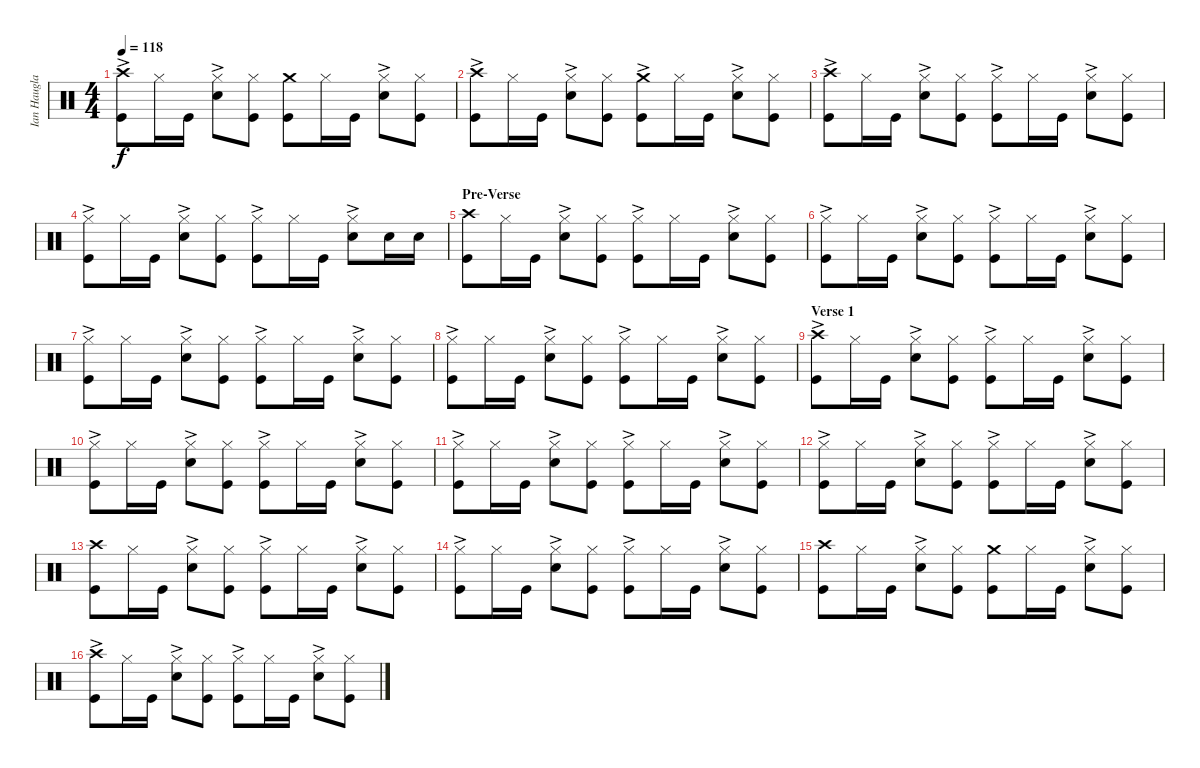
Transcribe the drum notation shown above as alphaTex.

\track ("Ian Haugland - Tama Imperialstar Kit - " "Ian Haugla") {instrument percussion}
\staff {score}
\articulation defaults
\ts (4 4)
\tempo 118
\clef neutral
\ks c
("Crash high (hit)"{ac} "Kick (hit)").8{dy f} "Hi-Hat (closed)".16 "Kick (hit)".16 ("Hi-Hat (closed)"{ac} "Snare (hit) 2").8 ("Hi-Hat (closed)" "Kick (hit)").8 ("Crash medium (hit)" "Kick (hit)").8 "Hi-Hat (closed)".16 "Kick (hit)".16 ("Hi-Hat (closed)"{ac} "Snare (hit) 2").8 ("Hi-Hat (closed)" "Kick (hit)").8 |
("Crash high (hit)"{ac} "Kick (hit)").8 "Hi-Hat (closed)".16 "Kick (hit)".16 ("Hi-Hat (closed)"{ac} "Snare (hit) 2").8 ("Hi-Hat (closed)" "Kick (hit)").8 ("Crash medium (hit)"{ac} "Kick (hit)").8 "Hi-Hat (closed)".16 "Kick (hit)".16 ("Hi-Hat (closed)"{ac} "Snare (hit) 2").8 ("Hi-Hat (closed)" "Kick (hit)").8 |
("Crash high (hit)"{ac} "Kick (hit)").8 "Hi-Hat (closed)".16 "Kick (hit)".16 ("Hi-Hat (closed)"{ac} "Snare (hit) 2").8 ("Hi-Hat (closed)" "Kick (hit)").8 ("Hi-Hat (closed)"{ac} "Kick (hit)").8 "Hi-Hat (closed)".16 "Kick (hit)".16 ("Hi-Hat (closed)"{ac} "Snare (hit) 2").8 ("Hi-Hat (closed)" "Kick (hit)").8 |
("Hi-Hat (closed)"{ac} "Kick (hit)").8 "Hi-Hat (closed)".16 "Kick (hit)".16 ("Hi-Hat (closed)"{ac} "Snare (hit) 2").8 ("Hi-Hat (closed)" "Kick (hit)").8 ("Hi-Hat (closed)"{ac} "Kick (hit)").8 "Hi-Hat (closed)".16 "Kick (hit)".16 ("Hi-Hat (closed)"{ac} "Snare (hit) 2").8 "Snare (hit) 2".16 "Snare (hit) 2".16 |
\section ("" "Pre-Verse")
("Crash high (hit)" "Kick (hit)").8 "Hi-Hat (closed)".16 "Kick (hit)".16 ("Hi-Hat (closed)"{ac} "Snare (hit) 2").8 ("Hi-Hat (closed)" "Kick (hit)").8 ("Hi-Hat (closed)"{ac} "Kick (hit)").8 "Hi-Hat (closed)".16 "Kick (hit)".16 ("Hi-Hat (closed)"{ac} "Snare (hit) 2").8 ("Hi-Hat (closed)" "Kick (hit)").8 |
("Hi-Hat (closed)"{ac} "Kick (hit)").8 "Hi-Hat (closed)".16 "Kick (hit)".16 ("Hi-Hat (closed)"{ac} "Snare (hit) 2").8 ("Hi-Hat (closed)" "Kick (hit)").8 ("Hi-Hat (closed)"{ac} "Kick (hit)").8 "Hi-Hat (closed)".16 "Kick (hit)".16 ("Hi-Hat (closed)"{ac} "Snare (hit) 2").8 ("Hi-Hat (closed)" "Kick (hit)").8 |
("Hi-Hat (closed)"{ac} "Kick (hit)").8 "Hi-Hat (closed)".16 "Kick (hit)".16 ("Hi-Hat (closed)"{ac} "Snare (hit) 2").8 ("Hi-Hat (closed)" "Kick (hit)").8 ("Hi-Hat (closed)"{ac} "Kick (hit)").8 "Hi-Hat (closed)".16 "Kick (hit)".16 ("Hi-Hat (closed)"{ac} "Snare (hit) 2").8 ("Hi-Hat (closed)" "Kick (hit)").8 |
("Hi-Hat (closed)"{ac} "Kick (hit)").8 "Hi-Hat (closed)".16 "Kick (hit)".16 ("Hi-Hat (closed)"{ac} "Snare (hit) 2").8 ("Hi-Hat (closed)" "Kick (hit)").8 ("Hi-Hat (closed)"{ac} "Kick (hit)").8 "Hi-Hat (closed)".16 "Kick (hit)".16 ("Hi-Hat (closed)"{ac} "Snare (hit) 2").8 ("Hi-Hat (closed)" "Kick (hit)").8 |
\section ("" "Verse 1")
("Crash high (hit)"{ac} "Kick (hit)").8 "Hi-Hat (closed)".16 "Kick (hit)".16 ("Hi-Hat (closed)"{ac} "Snare (hit) 2").8 ("Hi-Hat (closed)" "Kick (hit)").8 ("Hi-Hat (closed)"{ac} "Kick (hit)").8 "Hi-Hat (closed)".16 "Kick (hit)".16 ("Hi-Hat (closed)"{ac} "Snare (hit) 2").8 ("Hi-Hat (closed)" "Kick (hit)").8 |
("Hi-Hat (closed)"{ac} "Kick (hit)").8 "Hi-Hat (closed)".16 "Kick (hit)".16 ("Hi-Hat (closed)"{ac} "Snare (hit) 2").8 ("Hi-Hat (closed)" "Kick (hit)").8 ("Hi-Hat (closed)"{ac} "Kick (hit)").8 "Hi-Hat (closed)".16 "Kick (hit)".16 ("Hi-Hat (closed)"{ac} "Snare (hit) 2").8 ("Hi-Hat (closed)" "Kick (hit)").8 |
("Hi-Hat (closed)"{ac} "Kick (hit)").8 "Hi-Hat (closed)".16 "Kick (hit)".16 ("Hi-Hat (closed)"{ac} "Snare (hit) 2").8 ("Hi-Hat (closed)" "Kick (hit)").8 ("Hi-Hat (closed)"{ac} "Kick (hit)").8 "Hi-Hat (closed)".16 "Kick (hit)".16 ("Hi-Hat (closed)"{ac} "Snare (hit) 2").8 ("Hi-Hat (closed)" "Kick (hit)").8 |
("Hi-Hat (closed)"{ac} "Kick (hit)").8 "Hi-Hat (closed)".16 "Kick (hit)".16 ("Hi-Hat (closed)"{ac} "Snare (hit) 2").8 ("Hi-Hat (closed)" "Kick (hit)").8 ("Hi-Hat (closed)"{ac} "Kick (hit)").8 "Hi-Hat (closed)".16 "Kick (hit)".16 ("Hi-Hat (closed)"{ac} "Snare (hit) 2").8 ("Hi-Hat (closed)" "Kick (hit)").8 |
("Crash high (hit)" "Kick (hit)").8 "Hi-Hat (closed)".16 "Kick (hit)".16 ("Hi-Hat (closed)"{ac} "Snare (hit) 2").8 ("Hi-Hat (closed)" "Kick (hit)").8 ("Hi-Hat (closed)"{ac} "Kick (hit)").8 "Hi-Hat (closed)".16 "Kick (hit)".16 ("Hi-Hat (closed)"{ac} "Snare (hit) 2").8 ("Hi-Hat (closed)" "Kick (hit)").8 |
("Hi-Hat (closed)"{ac} "Kick (hit)").8 "Hi-Hat (closed)".16 "Kick (hit)".16 ("Hi-Hat (closed)"{ac} "Snare (hit) 2").8 ("Hi-Hat (closed)" "Kick (hit)").8 ("Hi-Hat (closed)"{ac} "Kick (hit)").8 "Hi-Hat (closed)".16 "Kick (hit)".16 ("Hi-Hat (closed)"{ac} "Snare (hit) 2").8 ("Hi-Hat (closed)" "Kick (hit)").8 |
("Crash high (hit)" "Kick (hit)").8 "Hi-Hat (closed)".16 "Kick (hit)".16 ("Hi-Hat (closed)"{ac} "Snare (hit) 2").8 ("Hi-Hat (closed)" "Kick (hit)").8 ("Crash medium (hit)" "Kick (hit)").8 "Hi-Hat (closed)".16 "Kick (hit)".16 ("Hi-Hat (closed)"{ac} "Snare (hit) 2").8 ("Hi-Hat (closed)" "Kick (hit)").8 |
("Crash high (hit)"{ac} "Kick (hit)").8 "Hi-Hat (closed)".16 "Kick (hit)".16 ("Hi-Hat (closed)"{ac} "Snare (hit) 2").8 ("Hi-Hat (closed)" "Kick (hit)").8 ("Hi-Hat (closed)"{ac} "Kick (hit)").8 "Hi-Hat (closed)".16 "Kick (hit)".16 ("Hi-Hat (closed)"{ac} "Snare (hit) 2").8 ("Hi-Hat (closed)" "Kick (hit)").8
